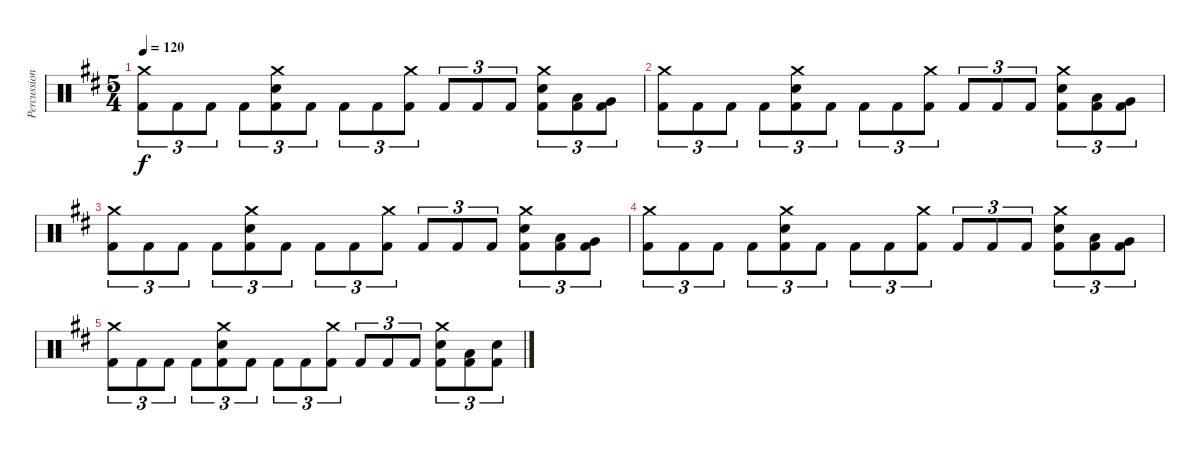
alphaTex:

\track ("Percussion" "Percussion") {instrument percussion}
\staff {score}
\articulation defaults
\ts (5 4)
\tempo 120
\clef neutral
\ks bminor
("Crash medium (hit)" "Kick (hit) 2").8{tu (3 2) dy f} "Kick (hit) 2".8{tu (3 2)} "Kick (hit) 2".8{tu (3 2)} "Kick (hit) 2".8{tu (3 2)} ("Crash medium (hit)" "Electric Snare (hit)" "Kick (hit) 2").8{tu (3 2)} "Kick (hit) 2".8{tu (3 2)} "Kick (hit) 2".8{tu (3 2)} "Kick (hit) 2".8{tu (3 2)} ("Crash medium (hit)" "Kick (hit) 2").8{tu (3 2)} "Kick (hit) 2".8{tu (3 2)} "Kick (hit) 2".8{tu (3 2)} "Kick (hit) 2".8{tu (3 2)} ("Crash medium (hit)" "Electric Snare (hit)" "Kick (hit) 2").8{tu (3 2)} ("Low Tom (hit)" "Kick (hit) 2").8{tu (3 2)} ("Very Low Tom (hit)" "Kick (hit) 2").8{tu (3 2)} |
("Crash medium (hit)" "Kick (hit) 2").8{tu (3 2)} "Kick (hit) 2".8{tu (3 2)} "Kick (hit) 2".8{tu (3 2)} "Kick (hit) 2".8{tu (3 2)} ("Crash medium (hit)" "Electric Snare (hit)" "Kick (hit) 2").8{tu (3 2)} "Kick (hit) 2".8{tu (3 2)} "Kick (hit) 2".8{tu (3 2)} "Kick (hit) 2".8{tu (3 2)} ("Crash medium (hit)" "Kick (hit) 2").8{tu (3 2)} "Kick (hit) 2".8{tu (3 2)} "Kick (hit) 2".8{tu (3 2)} "Kick (hit) 2".8{tu (3 2)} ("Crash medium (hit)" "Electric Snare (hit)" "Kick (hit) 2").8{tu (3 2)} ("Low Tom (hit)" "Kick (hit) 2").8{tu (3 2)} ("Very Low Tom (hit)" "Kick (hit) 2").8{tu (3 2)} |
("Crash medium (hit)" "Kick (hit) 2").8{tu (3 2)} "Kick (hit) 2".8{tu (3 2)} "Kick (hit) 2".8{tu (3 2)} "Kick (hit) 2".8{tu (3 2)} ("Crash medium (hit)" "Electric Snare (hit)" "Kick (hit) 2").8{tu (3 2)} "Kick (hit) 2".8{tu (3 2)} "Kick (hit) 2".8{tu (3 2)} "Kick (hit) 2".8{tu (3 2)} ("Crash medium (hit)" "Kick (hit) 2").8{tu (3 2)} "Kick (hit) 2".8{tu (3 2)} "Kick (hit) 2".8{tu (3 2)} "Kick (hit) 2".8{tu (3 2)} ("Crash medium (hit)" "Electric Snare (hit)" "Kick (hit) 2").8{tu (3 2)} ("Low Tom (hit)" "Kick (hit) 2").8{tu (3 2)} ("Very Low Tom (hit)" "Kick (hit) 2").8{tu (3 2)} |
("Crash medium (hit)" "Kick (hit) 2").8{tu (3 2)} "Kick (hit) 2".8{tu (3 2)} "Kick (hit) 2".8{tu (3 2)} "Kick (hit) 2".8{tu (3 2)} ("Crash medium (hit)" "Electric Snare (hit)" "Kick (hit) 2").8{tu (3 2)} "Kick (hit) 2".8{tu (3 2)} "Kick (hit) 2".8{tu (3 2)} "Kick (hit) 2".8{tu (3 2)} ("Crash medium (hit)" "Kick (hit) 2").8{tu (3 2)} "Kick (hit) 2".8{tu (3 2)} "Kick (hit) 2".8{tu (3 2)} "Kick (hit) 2".8{tu (3 2)} ("Crash medium (hit)" "Electric Snare (hit)" "Kick (hit) 2").8{tu (3 2)} ("Low Tom (hit)" "Kick (hit) 2").8{tu (3 2)} ("Very Low Tom (hit)" "Kick (hit) 2").8{tu (3 2)} |
("Crash medium (hit)" "Kick (hit) 2").8{tu (3 2)} "Kick (hit) 2".8{tu (3 2)} "Kick (hit) 2".8{tu (3 2)} "Kick (hit) 2".8{tu (3 2)} ("Crash medium (hit)" "Electric Snare (hit)" "Kick (hit) 2").8{tu (3 2)} "Kick (hit) 2".8{tu (3 2)} "Kick (hit) 2".8{tu (3 2)} "Kick (hit) 2".8{tu (3 2)} ("Crash medium (hit)" "Kick (hit) 2").8{tu (3 2)} "Kick (hit) 2".8{tu (3 2)} "Kick (hit) 2".8{tu (3 2)} "Kick (hit) 2".8{tu (3 2)} ("Crash medium (hit)" "Electric Snare (hit)" "Kick (hit) 2").8{tu (3 2)} ("Low Tom (hit)" "Kick (hit) 2").8{tu (3 2)} ("Electric Snare (hit)" "Kick (hit) 2").8{tu (3 2)}
